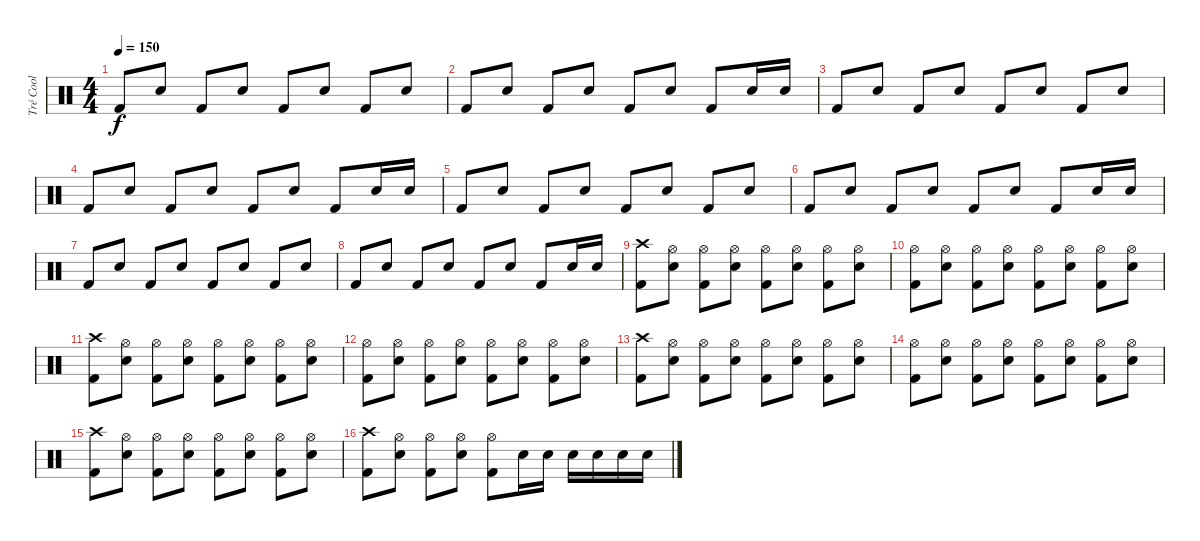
\track ("Tré Cool" "Tré Cool") {instrument percussion}
\staff {score}
\articulation defaults
\ts (4 4)
\tempo 150
\clef neutral
\ks c "Kick (hit) 2".8{dy f} "Electric Snare (hit)".8 "Kick (hit) 2".8 "Electric Snare (hit)".8 "Kick (hit) 2".8 "Electric Snare (hit)".8 "Kick (hit) 2".8 "Electric Snare (hit)".8
|
"Kick (hit) 2".8 "Electric Snare (hit)".8 "Kick (hit) 2".8 "Electric Snare (hit)".8 "Kick (hit) 2".8 "Electric Snare (hit)".8 "Kick (hit) 2".8 "Electric Snare (hit)".16 "Electric Snare (hit)".16 |
"Kick (hit) 2".8 "Electric Snare (hit)".8 "Kick (hit) 2".8 "Electric Snare (hit)".8 "Kick (hit) 2".8 "Electric Snare (hit)".8 "Kick (hit) 2".8 "Electric Snare (hit)".8 |
"Kick (hit) 2".8 "Electric Snare (hit)".8 "Kick (hit) 2".8 "Electric Snare (hit)".8 "Kick (hit) 2".8 "Electric Snare (hit)".8 "Kick (hit) 2".8 "Electric Snare (hit)".16 "Electric Snare (hit)".16 |
"Kick (hit) 2".8 "Electric Snare (hit)".8 "Kick (hit) 2".8 "Electric Snare (hit)".8 "Kick (hit) 2".8 "Electric Snare (hit)".8 "Kick (hit) 2".8 "Electric Snare (hit)".8 |
"Kick (hit) 2".8 "Electric Snare (hit)".8 "Kick (hit) 2".8 "Electric Snare (hit)".8 "Kick (hit) 2".8 "Electric Snare (hit)".8 "Kick (hit) 2".8 "Electric Snare (hit)".16 "Electric Snare (hit)".16 |
"Kick (hit) 2".8 "Electric Snare (hit)".8 "Kick (hit) 2".8 "Electric Snare (hit)".8 "Kick (hit) 2".8 "Electric Snare (hit)".8 "Kick (hit) 2".8 "Electric Snare (hit)".8 |
"Kick (hit) 2".8 "Electric Snare (hit)".8 "Kick (hit) 2".8 "Electric Snare (hit)".8 "Kick (hit) 2".8 "Electric Snare (hit)".8 "Kick (hit) 2".8 "Electric Snare (hit)".16 "Electric Snare (hit)".16 |
("Crash high (hit)" "Kick (hit) 2").8 ("Hi-Hat (open)" "Electric Snare (hit)").8 ("Hi-Hat (open)" "Kick (hit) 2").8 ("Hi-Hat (open)" "Electric Snare (hit)").8 ("Hi-Hat (open)" "Kick (hit) 2").8 ("Hi-Hat (open)" "Electric Snare (hit)").8 ("Hi-Hat (open)" "Kick (hit) 2").8 ("Hi-Hat (open)" "Electric Snare (hit)").8 |
("Hi-Hat (open)" "Kick (hit) 2").8 ("Hi-Hat (open)" "Electric Snare (hit)").8 ("Hi-Hat (open)" "Kick (hit) 2").8 ("Hi-Hat (open)" "Electric Snare (hit)").8 ("Hi-Hat (open)" "Kick (hit) 2").8 ("Hi-Hat (open)" "Electric Snare (hit)").8 ("Hi-Hat (open)" "Kick (hit) 2").8 ("Hi-Hat (open)" "Electric Snare (hit)").8 |
("Crash high (hit)" "Kick (hit) 2").8 ("Hi-Hat (open)" "Electric Snare (hit)").8 ("Hi-Hat (open)" "Kick (hit) 2").8 ("Hi-Hat (open)" "Electric Snare (hit)").8 ("Hi-Hat (open)" "Kick (hit) 2").8 ("Hi-Hat (open)" "Electric Snare (hit)").8 ("Hi-Hat (open)" "Kick (hit) 2").8 ("Hi-Hat (open)" "Electric Snare (hit)").8 |
("Hi-Hat (open)" "Kick (hit) 2").8 ("Hi-Hat (open)" "Electric Snare (hit)").8 ("Hi-Hat (open)" "Kick (hit) 2").8 ("Hi-Hat (open)" "Electric Snare (hit)").8 ("Hi-Hat (open)" "Kick (hit) 2").8 ("Hi-Hat (open)" "Electric Snare (hit)").8 ("Hi-Hat (open)" "Kick (hit) 2").8 ("Hi-Hat (open)" "Electric Snare (hit)").8 |
("Crash high (hit)" "Kick (hit) 2").8 ("Hi-Hat (open)" "Electric Snare (hit)").8 ("Hi-Hat (open)" "Kick (hit) 2").8 ("Hi-Hat (open)" "Electric Snare (hit)").8 ("Hi-Hat (open)" "Kick (hit) 2").8 ("Hi-Hat (open)" "Electric Snare (hit)").8 ("Hi-Hat (open)" "Kick (hit) 2").8 ("Hi-Hat (open)" "Electric Snare (hit)").8 |
("Hi-Hat (open)" "Kick (hit) 2").8 ("Hi-Hat (open)" "Electric Snare (hit)").8 ("Hi-Hat (open)" "Kick (hit) 2").8 ("Hi-Hat (open)" "Electric Snare (hit)").8 ("Hi-Hat (open)" "Kick (hit) 2").8 ("Hi-Hat (open)" "Electric Snare (hit)").8 ("Hi-Hat (open)" "Kick (hit) 2").8 ("Hi-Hat (open)" "Electric Snare (hit)").8 |
("Crash high (hit)" "Kick (hit) 2").8 ("Hi-Hat (open)" "Electric Snare (hit)").8 ("Hi-Hat (open)" "Kick (hit) 2").8 ("Hi-Hat (open)" "Electric Snare (hit)").8 ("Hi-Hat (open)" "Kick (hit) 2").8 ("Hi-Hat (open)" "Electric Snare (hit)").8 ("Hi-Hat (open)" "Kick (hit) 2").8 ("Hi-Hat (open)" "Electric Snare (hit)").8 |
("Crash high (hit)" "Kick (hit) 2").8 ("Hi-Hat (open)" "Electric Snare (hit)").8 ("Hi-Hat (open)" "Kick (hit) 2").8 ("Hi-Hat (open)" "Electric Snare (hit)").8 ("Hi-Hat (open)" "Kick (hit) 2").8 "Electric Snare (hit)".16 "Electric Snare (hit)".16 "Electric Snare (hit)".16 "Electric Snare (hit)".16 "Electric Snare (hit)".16 "Electric Snare (hit)".16
